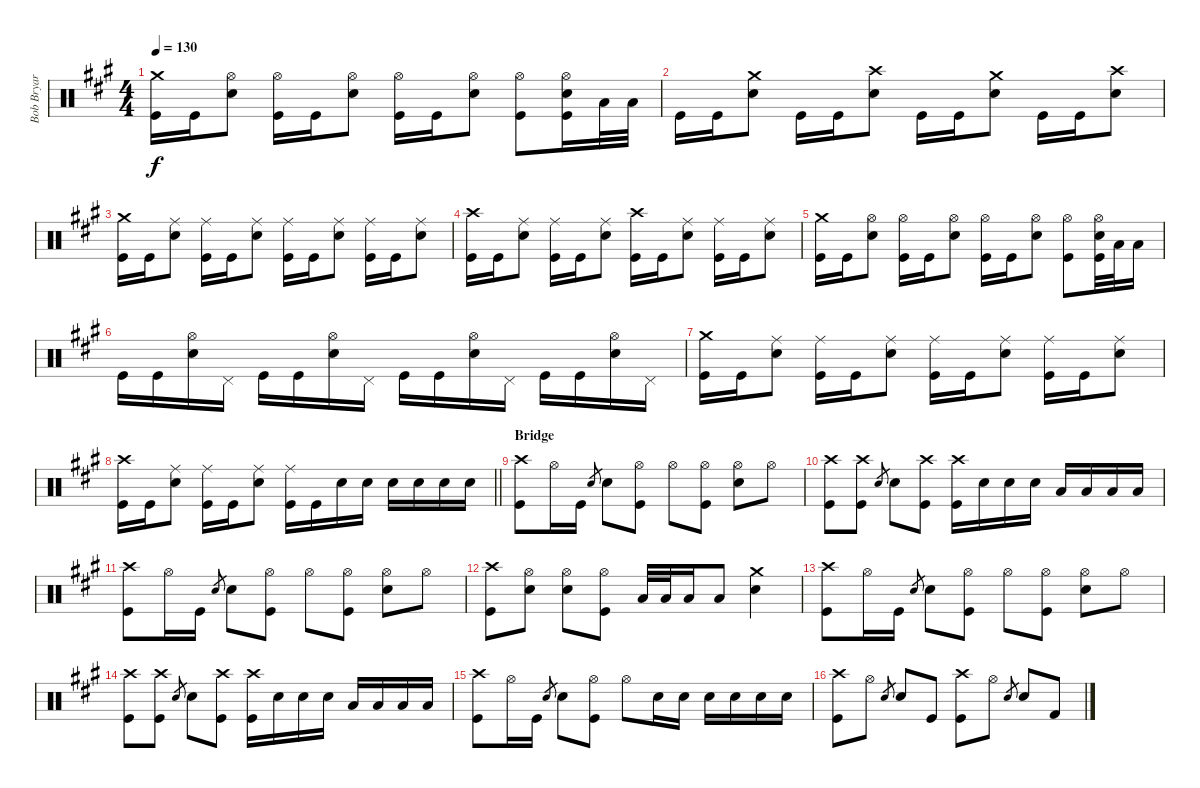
\track ("Bob Bryar" "Bob Bryar") {instrument percussion}
\staff {score}
\articulation defaults
\ts (4 4)
\tempo 130
\clef neutral
\ks a
("Crash medium (hit)" "Kick (hit)").16{dy f} "Kick (hit)".16 ("Hi-Hat (open)" "Snare (hit) 2").8 ("Hi-Hat (open)" "Kick (hit)").16 "Kick (hit)".16 ("Hi-Hat (open)" "Snare (hit) 2").8 ("Hi-Hat (open)" "Kick (hit)").16 "Kick (hit)".16 ("Hi-Hat (open)" "Snare (hit) 2").8 ("Hi-Hat (open)" "Kick (hit)").8 ("Hi-Hat (open)" "Snare (hit) 2" "Kick (hit)").16 "Low Tom (hit)".32 "Low Tom (hit)".32 |
"Kick (hit)".16 "Kick (hit)".16 ("Crash medium (hit)" "Snare (hit) 2").8 "Kick (hit)".16 "Kick (hit)".16 ("Crash high (hit)" "Snare (hit) 2").8 "Kick (hit)".16 "Kick (hit)".16 ("Crash medium (hit)" "Snare (hit) 2").8 "Kick (hit)".16 "Kick (hit)".16 ("Crash high (hit)" "Snare (hit) 2").8 |
("Crash medium (hit)" "Kick (hit)").16 "Kick (hit)".16 ("Ride (middle)" "Snare (hit) 2").8 ("Ride (middle)" "Kick (hit)").16 "Kick (hit)".16 ("Ride (middle)" "Snare (hit) 2").8 ("Ride (middle)" "Kick (hit)").16 "Kick (hit)".16 ("Ride (middle)" "Snare (hit) 2").8 ("Ride (middle)" "Kick (hit)").16 "Kick (hit)".16 ("Ride (middle)" "Snare (hit) 2").8 |
("Crash high (hit)" "Kick (hit)").16 "Kick (hit)".16 ("Ride (middle)" "Snare (hit) 2").8 ("Ride (middle)" "Kick (hit)").16 "Kick (hit)".16 ("Ride (middle)" "Snare (hit) 2").8 ("Crash high (hit)" "Kick (hit)").16 "Kick (hit)".16 ("Ride (middle)" "Snare (hit) 2").8 ("Ride (middle)" "Kick (hit)").16 "Kick (hit)".16 ("Ride (middle)" "Snare (hit) 2").8 |
("Crash medium (hit)" "Kick (hit)").16 "Kick (hit)".16 ("Hi-Hat (open)" "Snare (hit) 2").8 ("Hi-Hat (open)" "Kick (hit)").16 "Kick (hit)".16 ("Hi-Hat (open)" "Snare (hit) 2").8 ("Hi-Hat (open)" "Kick (hit)").16 "Kick (hit)".16 ("Hi-Hat (open)" "Snare (hit) 2").8 ("Hi-Hat (open)" "Kick (hit)").8 ("Hi-Hat (open)" "Snare (hit) 2" "Kick (hit)").32 "Low Tom (hit)".32 "Low Tom (hit)".16 |
"Kick (hit)".16 "Kick (hit)".16 ("Hi-Hat (open)" "Snare (hit) 2").16 "Pedal Hi-Hat (hit)".16 "Kick (hit)".16 "Kick (hit)".16 ("Hi-Hat (open)" "Snare (hit) 2").16 "Pedal Hi-Hat (hit)".16 "Kick (hit)".16 "Kick (hit)".16 ("Hi-Hat (open)" "Snare (hit) 2").16 "Pedal Hi-Hat (hit)".16 "Kick (hit)".16 "Kick (hit)".16 ("Hi-Hat (open)" "Snare (hit) 2").16 "Pedal Hi-Hat (hit)".16 |
("Crash medium (hit)" "Kick (hit)").16 "Kick (hit)".16 ("Ride (middle)" "Snare (hit) 2").8 ("Ride (middle)" "Kick (hit)").16 "Kick (hit)".16 ("Ride (middle)" "Snare (hit) 2").8 ("Ride (middle)" "Kick (hit)").16 "Kick (hit)".16 ("Ride (middle)" "Snare (hit) 2").8 ("Ride (middle)" "Kick (hit)").16 "Kick (hit)".16 ("Ride (middle)" "Snare (hit) 2").8 |
\barLineRight lightlight
("Crash high (hit)" "Kick (hit)").16 "Kick (hit)".16 ("Ride (middle)" "Snare (hit) 2").8 ("Ride (middle)" "Kick (hit)").16 "Kick (hit)".16 ("Ride (middle)" "Snare (hit) 2").8 ("Ride (middle)" "Kick (hit)").16 "Kick (hit)".16 "Snare (hit) 2".16 "Snare (hit) 2".16 "Snare (hit) 2".16 "Snare (hit) 2".16 "Snare (hit) 2".16 "Snare (hit) 2".16 |
\section ("" "Bridge")
("Crash high (hit)" "Kick (hit)").8 "Hi-Hat (open)".16 "Kick (hit)".16 "Snare (hit) 2".8{gr} "Snare (hit) 2".8 ("Hi-Hat (open)" "Kick (hit)").8 "Hi-Hat (open)".8 ("Hi-Hat (open)" "Kick (hit)").8 ("Hi-Hat (open)" "Snare (hit) 2").8 "Hi-Hat (open)".8 |
("Crash high (hit)" "Kick (hit)").8 ("Crash high (hit)" "Kick (hit)").8 "Snare (hit) 2".8{gr} "Snare (hit) 2".8 ("Crash high (hit)" "Kick (hit)").8 ("Crash high (hit)" "Kick (hit)").16 "Snare (hit) 2".16 "Snare (hit) 2".16 "Snare (hit) 2".16 "Low Tom (hit)".16 "Low Tom (hit)".16 "Low Tom (hit)".16 "Low Tom (hit)".16 |
("Crash high (hit)" "Kick (hit)").8 "Hi-Hat (open)".16 "Kick (hit)".16 "Snare (hit) 2".8{gr} "Snare (hit) 2".8 ("Hi-Hat (open)" "Kick (hit)").8 "Hi-Hat (open)".8 ("Hi-Hat (open)" "Kick (hit)").8 ("Hi-Hat (open)" "Snare (hit) 2").8 "Hi-Hat (open)".8 |
("Crash high (hit)" "Kick (hit)").8 ("Hi-Hat (open)" "Snare (hit) 2").8 ("Hi-Hat (open)" "Snare (hit) 2").8 ("Hi-Hat (open)" "Kick (hit)").8 "Low Tom (hit)".32 "Low Tom (hit)".32 "Low Tom (hit)".16 "Low Tom (hit)".8 ("Crash medium (hit)" "Snare (hit) 2").4 |
("Crash high (hit)" "Kick (hit)").8 "Hi-Hat (open)".16 "Kick (hit)".16 "Snare (hit) 2".8{gr} "Snare (hit) 2".8 ("Hi-Hat (open)" "Kick (hit)").8 "Hi-Hat (open)".8 ("Hi-Hat (open)" "Kick (hit)").8 ("Hi-Hat (open)" "Snare (hit) 2").8 "Hi-Hat (open)".8 |
("Crash high (hit)" "Kick (hit)").8 ("Crash high (hit)" "Kick (hit)").8 "Snare (hit) 2".8{gr} "Snare (hit) 2".8 ("Crash high (hit)" "Kick (hit)").8 ("Crash high (hit)" "Kick (hit)").16 "Snare (hit) 2".16 "Snare (hit) 2".16 "Snare (hit) 2".16 "Low Tom (hit)".16 "Low Tom (hit)".16 "Low Tom (hit)".16 "Low Tom (hit)".16 |
("Crash high (hit)" "Kick (hit)").8 "Hi-Hat (open)".16 "Kick (hit)".16 "Snare (hit) 2".8{gr} "Snare (hit) 2".8 ("Hi-Hat (open)" "Kick (hit)").8 "Hi-Hat (open)".8 "Snare (hit) 2".16 "Snare (hit) 2".16 "Snare (hit) 2".16 "Snare (hit) 2".16 "Snare (hit) 2".16 "Snare (hit) 2".16 |
("Crash high (hit)" "Kick (hit)").8 "Hi-Hat (open)".8 "Snare (hit) 2".8{gr} "Snare (hit) 2".8 "Kick (hit)".8 ("Crash high (hit)" "Kick (hit)").8 "Hi-Hat (open)".8 "Snare (hit) 2".8{gr} "Snare (hit) 2".8 "Kick (hit) 2".8
